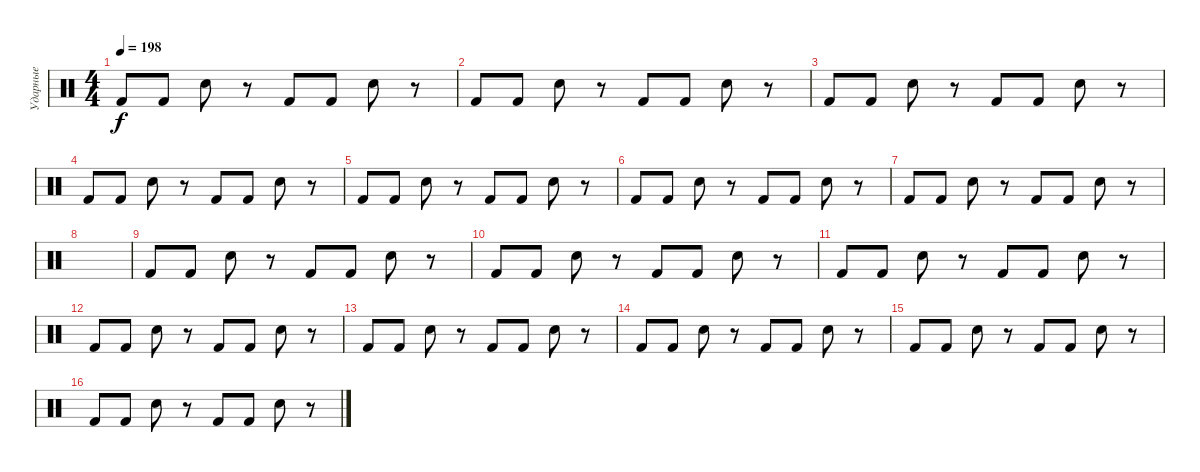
\track ("Ударные" "Ударные") {instrument percussion}
\staff {score}
\articulation defaults
\ts (4 4)
\tempo 198
\clef neutral
\ks c "Kick (hit) 2".8{dy f} "Kick (hit) 2".8 "Snare (hit) 2".8
r.8 "Kick (hit) 2".8 "Kick (hit) 2".8 "Snare (hit) 2".8 r.8 |
"Kick (hit) 2".8 "Kick (hit) 2".8 "Snare (hit) 2".8 r.8 "Kick (hit) 2".8 "Kick (hit) 2".8 "Snare (hit) 2".8 r.8 |
"Kick (hit) 2".8 "Kick (hit) 2".8 "Snare (hit) 2".8 r.8 "Kick (hit) 2".8 "Kick (hit) 2".8 "Snare (hit) 2".8 r.8 |
"Kick (hit) 2".8 "Kick (hit) 2".8 "Snare (hit) 2".8 r.8 "Kick (hit) 2".8 "Kick (hit) 2".8 "Snare (hit) 2".8 r.8 |
"Kick (hit) 2".8 "Kick (hit) 2".8 "Snare (hit) 2".8 r.8 "Kick (hit) 2".8 "Kick (hit) 2".8 "Snare (hit) 2".8 r.8 |
"Kick (hit) 2".8 "Kick (hit) 2".8 "Snare (hit) 2".8 r.8 "Kick (hit) 2".8 "Kick (hit) 2".8 "Snare (hit) 2".8 r.8 |
"Kick (hit) 2".8 "Kick (hit) 2".8 "Snare (hit) 2".8 r.8 "Kick (hit) 2".8 "Kick (hit) 2".8 "Snare (hit) 2".8 r.8 |
|
"Kick (hit) 2".8 "Kick (hit) 2".8 "Snare (hit) 2".8 r.8 "Kick (hit) 2".8 "Kick (hit) 2".8 "Snare (hit) 2".8 r.8 |
"Kick (hit) 2".8 "Kick (hit) 2".8 "Snare (hit) 2".8 r.8 "Kick (hit) 2".8 "Kick (hit) 2".8 "Snare (hit) 2".8 r.8 |
"Kick (hit) 2".8 "Kick (hit) 2".8 "Snare (hit) 2".8 r.8 "Kick (hit) 2".8 "Kick (hit) 2".8 "Snare (hit) 2".8 r.8 |
"Kick (hit) 2".8 "Kick (hit) 2".8 "Snare (hit) 2".8 r.8 "Kick (hit) 2".8 "Kick (hit) 2".8 "Snare (hit) 2".8 r.8 |
"Kick (hit) 2".8 "Kick (hit) 2".8 "Snare (hit) 2".8 r.8 "Kick (hit) 2".8 "Kick (hit) 2".8 "Snare (hit) 2".8 r.8 |
"Kick (hit) 2".8 "Kick (hit) 2".8 "Snare (hit) 2".8 r.8 "Kick (hit) 2".8 "Kick (hit) 2".8 "Snare (hit) 2".8 r.8 |
"Kick (hit) 2".8 "Kick (hit) 2".8 "Snare (hit) 2".8 r.8 "Kick (hit) 2".8 "Kick (hit) 2".8 "Snare (hit) 2".8 r.8 |
"Kick (hit) 2".8 "Kick (hit) 2".8 "Snare (hit) 2".8 r.8 "Kick (hit) 2".8 "Kick (hit) 2".8 "Snare (hit) 2".8 r.8
